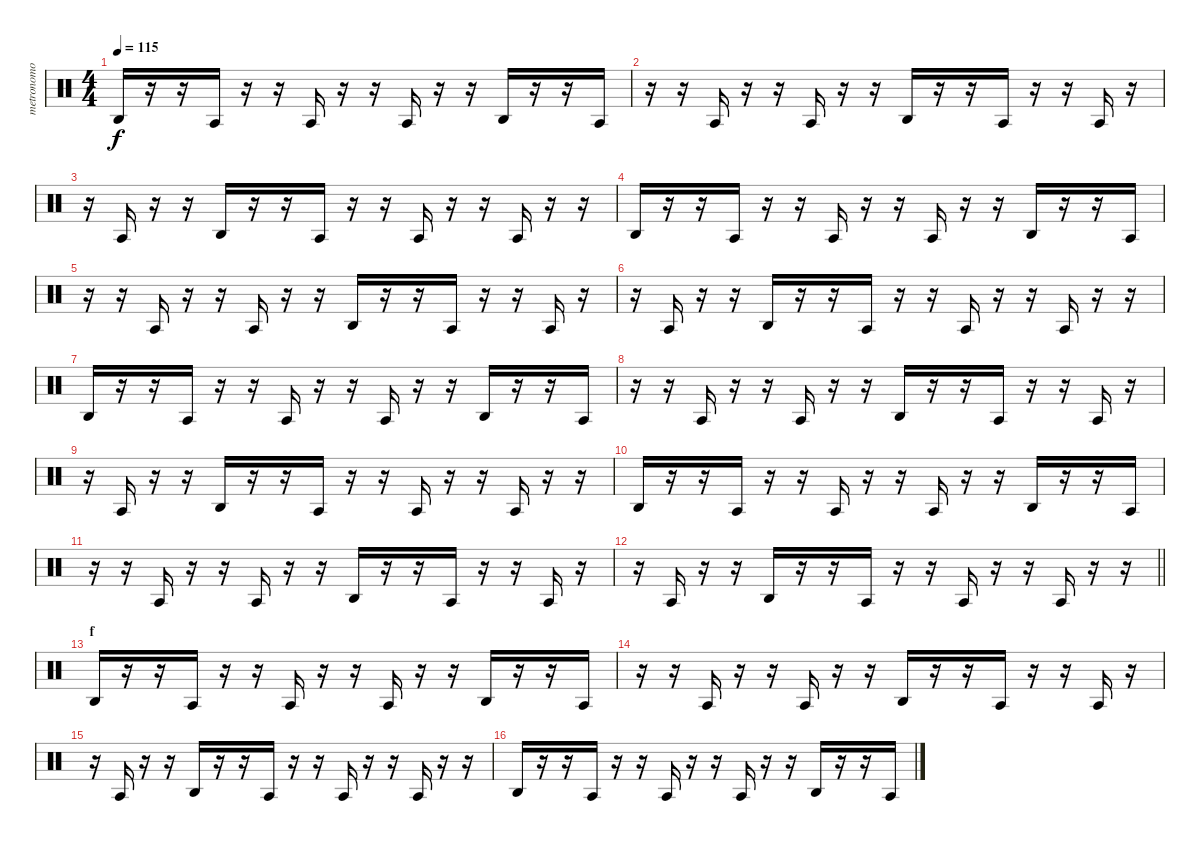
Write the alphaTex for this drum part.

\track ("metronomo" "metronomo") {mute instrument percussion}
\staff {score}
\articulation defaults
\ts (4 4)
\tempo 115
\clef neutral
\ks c "Agogo high (hit)".16{dy f}
r.16 r.16 "Agogo tow (hit)".16 r.16 r.16 "Agogo tow (hit)".16 r.16 r.16 "Agogo tow (hit)".16 r.16 r.16 "Agogo high (hit)".16 r.16 r.16 "Agogo tow (hit)".16 |
r.16 r.16 "Agogo tow (hit)".16 r.16 r.16 "Agogo tow (hit)".16 r.16 r.16 "Agogo high (hit)".16 r.16 r.16 "Agogo tow (hit)".16 r.16 r.16 "Agogo tow (hit)".16 r.16 |
r.16 "Agogo tow (hit)".16 r.16 r.16 "Agogo high (hit)".16 r.16 r.16 "Agogo tow (hit)".16 r.16 r.16 "Agogo tow (hit)".16 r.16 r.16 "Agogo tow (hit)".16 r.16 r.16 |
"Agogo high (hit)".16 r.16 r.16 "Agogo tow (hit)".16 r.16 r.16 "Agogo tow (hit)".16 r.16 r.16 "Agogo tow (hit)".16 r.16 r.16 "Agogo high (hit)".16 r.16 r.16 "Agogo tow (hit)".16 |
r.16 r.16 "Agogo tow (hit)".16 r.16 r.16 "Agogo tow (hit)".16 r.16 r.16 "Agogo high (hit)".16 r.16 r.16 "Agogo tow (hit)".16 r.16 r.16 "Agogo tow (hit)".16 r.16 |
r.16 "Agogo tow (hit)".16 r.16 r.16 "Agogo high (hit)".16 r.16 r.16 "Agogo tow (hit)".16 r.16 r.16 "Agogo tow (hit)".16 r.16 r.16 "Agogo tow (hit)".16 r.16 r.16 |
"Agogo high (hit)".16 r.16 r.16 "Agogo tow (hit)".16 r.16 r.16 "Agogo tow (hit)".16 r.16 r.16 "Agogo tow (hit)".16 r.16 r.16 "Agogo high (hit)".16 r.16 r.16 "Agogo tow (hit)".16 |
r.16 r.16 "Agogo tow (hit)".16 r.16 r.16 "Agogo tow (hit)".16 r.16 r.16 "Agogo high (hit)".16 r.16 r.16 "Agogo tow (hit)".16 r.16 r.16 "Agogo tow (hit)".16 r.16 |
r.16 "Agogo tow (hit)".16 r.16 r.16 "Agogo high (hit)".16 r.16 r.16 "Agogo tow (hit)".16 r.16 r.16 "Agogo tow (hit)".16 r.16 r.16 "Agogo tow (hit)".16 r.16 r.16 |
"Agogo high (hit)".16 r.16 r.16 "Agogo tow (hit)".16 r.16 r.16 "Agogo tow (hit)".16 r.16 r.16 "Agogo tow (hit)".16 r.16 r.16 "Agogo high (hit)".16 r.16 r.16 "Agogo tow (hit)".16 |
r.16 r.16 "Agogo tow (hit)".16 r.16 r.16 "Agogo tow (hit)".16 r.16 r.16 "Agogo high (hit)".16 r.16 r.16 "Agogo tow (hit)".16 r.16 r.16 "Agogo tow (hit)".16 r.16 |
\barLineRight lightlight
r.16 "Agogo tow (hit)".16 r.16 r.16 "Agogo high (hit)".16 r.16 r.16 "Agogo tow (hit)".16 r.16 r.16 "Agogo tow (hit)".16 r.16 r.16 "Agogo tow (hit)".16 r.16 r.16 |
\section ("" "f")
"Agogo high (hit)".16 r.16 r.16 "Agogo tow (hit)".16 r.16 r.16 "Agogo tow (hit)".16 r.16 r.16 "Agogo tow (hit)".16 r.16 r.16 "Agogo high (hit)".16 r.16 r.16 "Agogo tow (hit)".16 |
r.16 r.16 "Agogo tow (hit)".16 r.16 r.16 "Agogo tow (hit)".16 r.16 r.16 "Agogo high (hit)".16 r.16 r.16 "Agogo tow (hit)".16 r.16 r.16 "Agogo tow (hit)".16 r.16 |
r.16 "Agogo tow (hit)".16 r.16 r.16 "Agogo high (hit)".16 r.16 r.16 "Agogo tow (hit)".16 r.16 r.16 "Agogo tow (hit)".16 r.16 r.16 "Agogo tow (hit)".16 r.16 r.16 |
"Agogo high (hit)".16 r.16 r.16 "Agogo tow (hit)".16 r.16 r.16 "Agogo tow (hit)".16 r.16 r.16 "Agogo tow (hit)".16 r.16 r.16 "Agogo high (hit)".16 r.16 r.16 "Agogo tow (hit)".16
